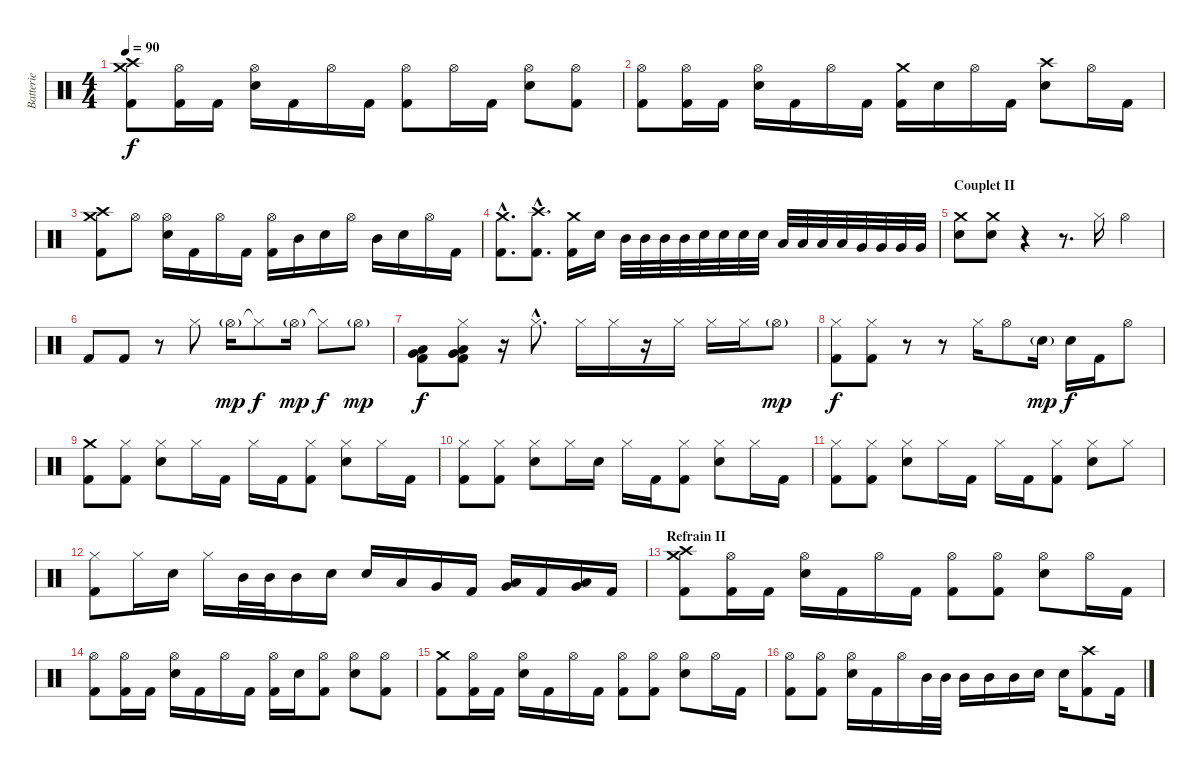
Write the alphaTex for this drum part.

\track ("Batterie" "Batterie") {instrument percussion}
\staff {score}
\articulation defaults
\ts (4 4)
\tempo 90
\clef neutral
\ks c
("Crash medium (hit)" "Crash high (hit)" "Kick (hit) 2").8{dy f} ("Hi-Hat (open)" "Kick (hit) 2").16 "Kick (hit) 2".16 ("Hi-Hat (open)" "Electric Snare (hit)").16 "Kick (hit) 2".16 "Hi-Hat (open)".16 "Kick (hit) 2".16 ("Hi-Hat (open)" "Kick (hit) 2").8 "Hi-Hat (open)".16 "Kick (hit) 2".16 ("Hi-Hat (open)" "Electric Snare (hit)").8 ("Hi-Hat (open)" "Kick (hit) 2").8 |
("Hi-Hat (open)" "Kick (hit) 2").8 ("Hi-Hat (open)" "Kick (hit) 2").16 "Kick (hit) 2".16 ("Hi-Hat (open)" "Electric Snare (hit)").16 "Kick (hit) 2".16 "Hi-Hat (open)".16 "Kick (hit) 2".16 ("Crash medium (hit)" "Kick (hit) 2").16 "Electric Snare (hit)".16 "Hi-Hat (open)".16 "Kick (hit) 2".16 ("Crash high (hit)" "Electric Snare (hit)").8 "Hi-Hat (open)".16 "Kick (hit) 2".16 |
("Crash medium (hit)" "Crash high (hit)" "Kick (hit) 2").8 "Hi-Hat (open)".8 ("Hi-Hat (open)" "Electric Snare (hit)").16 "Kick (hit) 2".16 "Hi-Hat (open)".16 "Kick (hit) 2".16 ("Hi-Hat (open)" "Kick (hit) 2").16 "Mid Tom (hit)".16 "Electric Snare (hit)".16 "Hi-Hat (open)".16 "Mid Tom (hit)".16 "Electric Snare (hit)".16 "Hi-Hat (open)".16 "Kick (hit) 2".16 |
("Crash medium (hit)"{hac} "Kick (hit) 2"{hac}).8{d} ("Crash high (hit)"{hac} "Kick (hit) 2"{hac}).8{d} ("Crash medium (hit)" "Kick (hit) 2").16 "Electric Snare (hit)".16 "Mid Tom (hit)".32 "Mid Tom (hit)".32 "Mid Tom (hit)".32 "Mid Tom (hit)".32 "Electric Snare (hit)".32 "Electric Snare (hit)".32 "Electric Snare (hit)".32 "Electric Snare (hit)".32 "Low Tom (hit)".32 "Low Tom (hit)".32 "Low Tom (hit)".32 "Low Tom (hit)".32 "Very Low Tom (hit)".32 "Very Low Tom (hit)".32 "Very Low Tom (hit)".32 "Very Low Tom (hit)".32 |
\section ("" "Couplet II")
("Crash medium (hit)" "Electric Snare (hit)").8 ("Crash medium (hit)" "Electric Snare (hit)").8 r.4 r.8{d} "Hi-Hat (closed)".16 "Hi-Hat (open)".4 |
"Kick (hit) 2".8 "Kick (hit) 2".8 r.8 "Hi-Hat (closed)".8 "Hi-Hat (open)"{g}.16{dy mp} "Hi-Hat (closed)"{t}.8{dy f} "Hi-Hat (open)"{g}.16{dy mp} "Hi-Hat (closed)"{t}.8{dy f} "Hi-Hat (open)"{g}.8{dy mp} |
("Low Tom (hit)" "Very Low Tom (hit)" "Kick (hit) 2").8{dy f} ("Hi-Hat (closed)" "Low Tom (hit)" "Very Low Tom (hit)" "Kick (hit) 2").8 r.16 "Hi-Hat (closed)"{hac}.8{d} "Hi-Hat (closed)".16 "Hi-Hat (closed)".16 r.16 "Hi-Hat (closed)".16 "Hi-Hat (closed)".16 "Hi-Hat (closed)".16 "Hi-Hat (open)"{g}.8{dy mp} |
("Hi-Hat (closed)" "Kick (hit) 2").8{dy f} ("Hi-Hat (closed)" "Kick (hit) 2").8 r.8 r.8 "Hi-Hat (closed)".16 "Hi-Hat (open)".8 "Electric Snare (hit)"{g}.16{dy mp} "Electric Snare (hit)".16{dy f} "Kick (hit) 2".16 "Hi-Hat (open)".8 |
("Crash medium (hit)" "Kick (hit) 2").8 ("Hi-Hat (closed)" "Kick (hit) 2").8 ("Hi-Hat (closed)" "Electric Snare (hit)").8 "Hi-Hat (closed)".16 "Kick (hit) 2".16 "Hi-Hat (closed)".16 "Kick (hit) 2".16 ("Hi-Hat (closed)" "Kick (hit) 2").8 ("Hi-Hat (closed)" "Electric Snare (hit)").8 "Hi-Hat (closed)".16 "Kick (hit) 2".16 |
("Hi-Hat (closed)" "Kick (hit) 2").8 ("Hi-Hat (closed)" "Kick (hit) 2").8 ("Hi-Hat (closed)" "Electric Snare (hit)").8 "Hi-Hat (closed)".16 "Electric Snare (hit)".16 "Hi-Hat (closed)".16 "Kick (hit) 2".16 ("Hi-Hat (closed)" "Kick (hit) 2").8 ("Hi-Hat (closed)" "Electric Snare (hit)").8 "Hi-Hat (closed)".16 "Kick (hit) 2".16 |
("Hi-Hat (closed)" "Kick (hit) 2").8 ("Hi-Hat (closed)" "Kick (hit) 2").8 ("Hi-Hat (closed)" "Electric Snare (hit)").8 "Hi-Hat (closed)".16 "Kick (hit) 2".16 "Hi-Hat (closed)".16 "Kick (hit) 2".16 ("Hi-Hat (closed)" "Kick (hit) 2").8 ("Hi-Hat (closed)" "Electric Snare (hit)").8 "Hi-Hat (closed)".8 |
("Hi-Hat (closed)" "Kick (hit) 2").8 "Hi-Hat (closed)".16 "Electric Snare (hit)".16 "Hi-Hat (closed)".16 "Mid Tom (hit)".32 "Mid Tom (hit)".32 "Mid Tom (hit)".16 "Electric Snare (hit)".16 "Electric Snare (hit)".16 "Low Tom (hit)".16 "Very Low Tom (hit)".16 "Kick (hit) 2".16 ("Low Tom (hit)" "Very Low Tom (hit)").16 "Kick (hit) 2".16 ("Low Tom (hit)" "Very Low Tom (hit)").16 "Kick (hit) 2".16 |
\section ("" "Refrain II")
("Crash medium (hit)" "Crash high (hit)" "Kick (hit) 2").8 ("Hi-Hat (open)" "Kick (hit) 2").16 "Kick (hit) 2".16 ("Hi-Hat (open)" "Electric Snare (hit)").16 "Kick (hit) 2".16 "Hi-Hat (open)".16 "Kick (hit) 2".16 ("Hi-Hat (open)" "Kick (hit) 2").8 ("Hi-Hat (open)" "Kick (hit) 2").8 ("Hi-Hat (open)" "Electric Snare (hit)").8 "Hi-Hat (open)".16 "Kick (hit) 2".16 |
("Hi-Hat (open)" "Kick (hit) 2").8 ("Hi-Hat (open)" "Kick (hit) 2").16 "Kick (hit) 2".16 ("Hi-Hat (open)" "Electric Snare (hit)").16 "Kick (hit) 2".16 "Hi-Hat (open)".16 "Kick (hit) 2".16 ("Hi-Hat (open)" "Kick (hit) 2").16 "Electric Snare (hit)".16 ("Hi-Hat (open)" "Kick (hit) 2").8 ("Hi-Hat (open)" "Electric Snare (hit)").8 ("Hi-Hat (open)" "Kick (hit) 2").8 |
("Crash medium (hit)" "Kick (hit) 2").8 ("Hi-Hat (open)" "Kick (hit) 2").16 "Kick (hit) 2".16 ("Hi-Hat (open)" "Electric Snare (hit)").16 "Kick (hit) 2".16 "Hi-Hat (open)".16 "Kick (hit) 2".16 ("Hi-Hat (open)" "Kick (hit) 2").8 ("Hi-Hat (open)" "Kick (hit) 2").8 ("Hi-Hat (open)" "Electric Snare (hit)").8 "Hi-Hat (open)".16 "Kick (hit) 2".16 |
("Hi-Hat (open)" "Kick (hit) 2").8 ("Hi-Hat (open)" "Kick (hit) 2").8 ("Hi-Hat (open)" "Electric Snare (hit)").16 "Kick (hit) 2".16 "Hi-Hat (open)".16 "Mid Tom (hit)".32 "Mid Tom (hit)".32 "Mid Tom (hit)".16 "Mid Tom (hit)".16 "Mid Tom (hit)".16 "Electric Snare (hit)".16 "Electric Snare (hit)".16 ("Crash high (hit)" "Kick (hit) 2").8 "Kick (hit) 2".16
